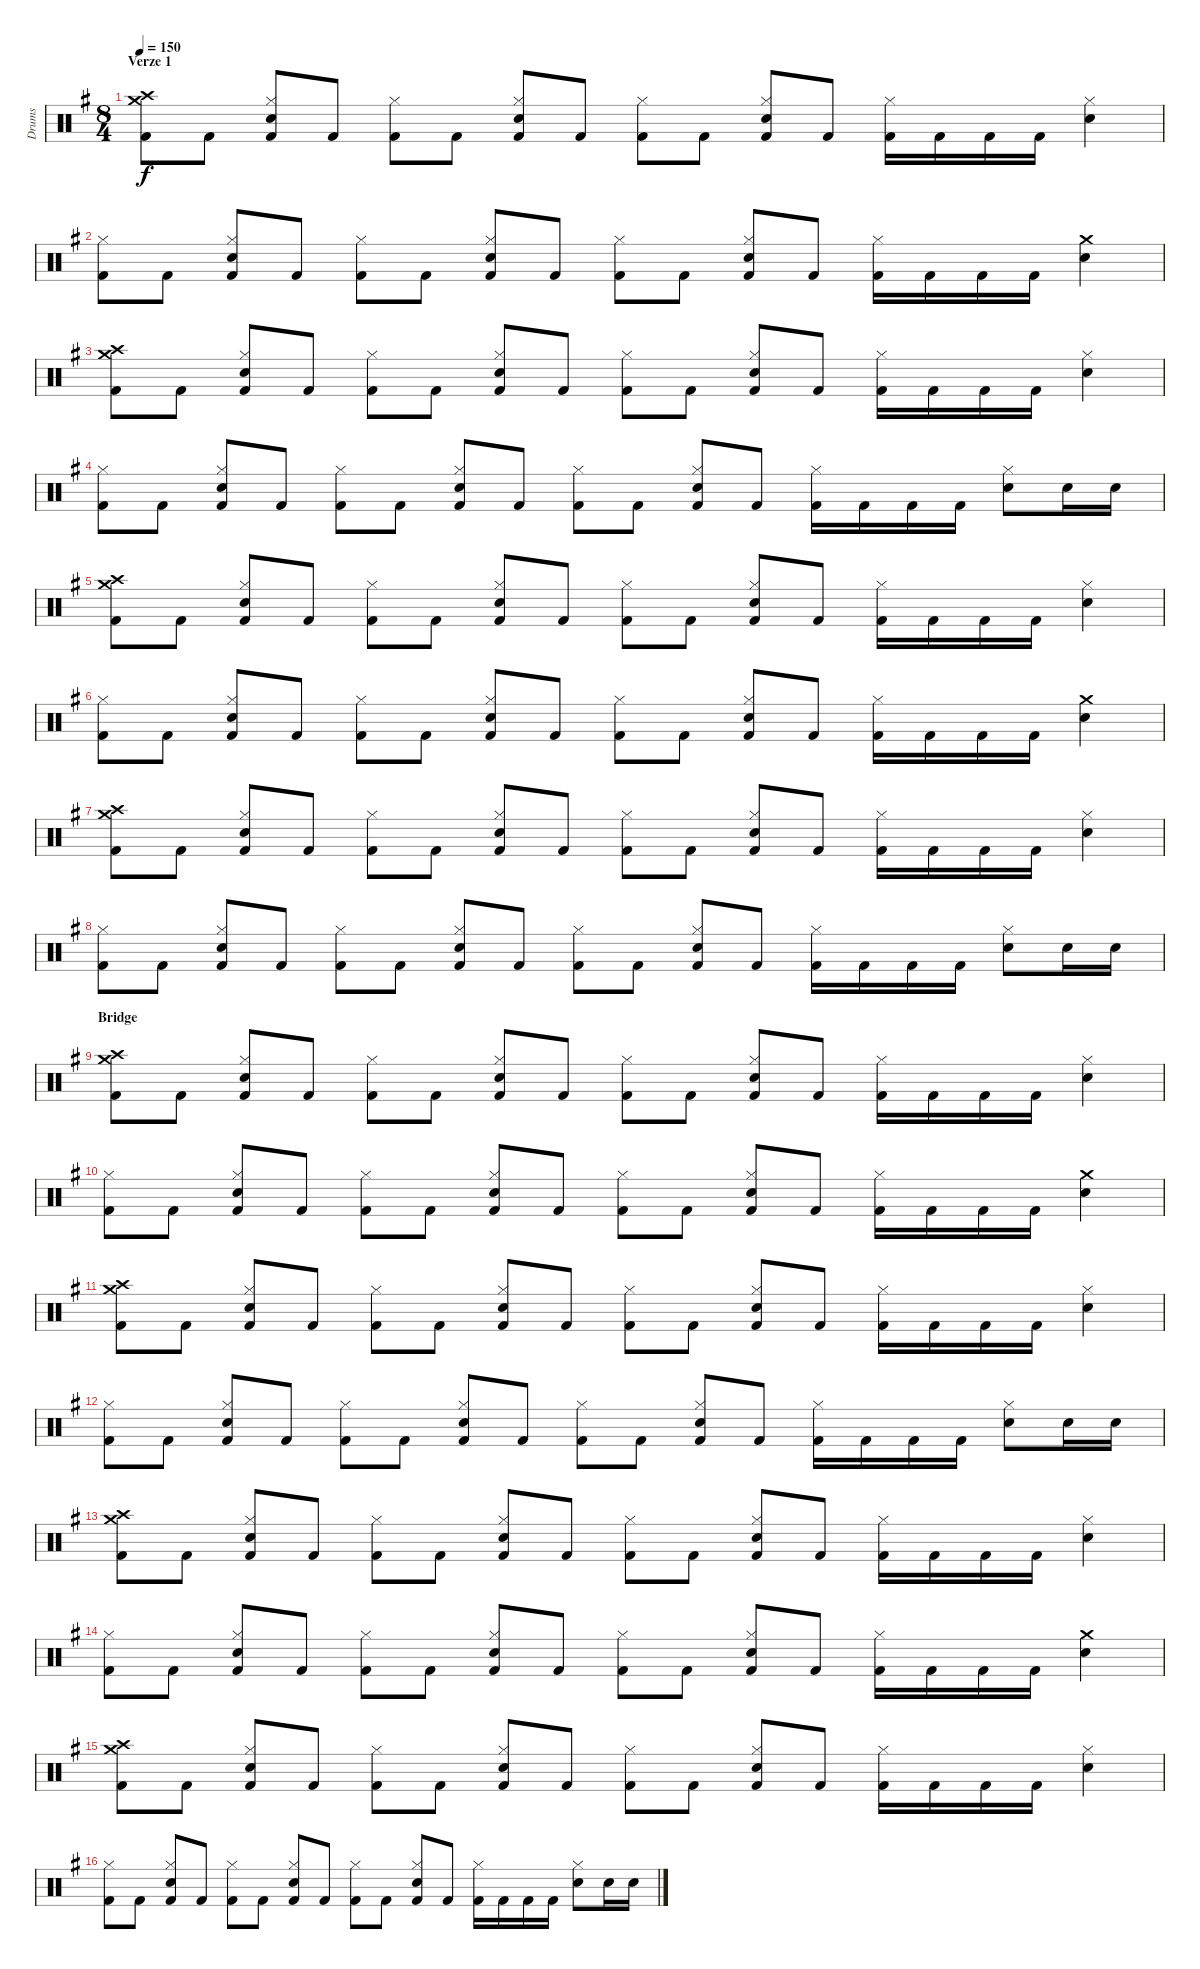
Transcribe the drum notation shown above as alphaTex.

\track ("Drums" "Drums") {instrument percussion}
\staff {score}
\articulation defaults
\ts (8 4)
\section ("" "Verze 1")
\tempo 150
\clef neutral
\ks g
("Crash medium (hit)" "Crash high (hit)" "Kick (hit) 2").8{dy f} "Kick (hit) 2".8 ("Hi-Hat (closed)" "Snare (hit) 2" "Kick (hit) 2").8 "Kick (hit) 2".8 ("Hi-Hat (closed)" "Kick (hit) 2").8 "Kick (hit) 2".8 ("Hi-Hat (closed)" "Snare (hit) 2" "Kick (hit) 2").8 "Kick (hit) 2".8 ("Hi-Hat (closed)" "Kick (hit) 2").8 "Kick (hit) 2".8 ("Hi-Hat (closed)" "Snare (hit) 2" "Kick (hit) 2").8 "Kick (hit) 2".8 ("Hi-Hat (closed)" "Kick (hit) 2").16 "Kick (hit) 2".16 "Kick (hit) 2".16 "Kick (hit) 2".16 ("Hi-Hat (closed)" "Snare (hit) 2").4 |
("Hi-Hat (closed)" "Kick (hit) 2").8 "Kick (hit) 2".8 ("Hi-Hat (closed)" "Snare (hit) 2" "Kick (hit) 2").8 "Kick (hit) 2".8 ("Hi-Hat (closed)" "Kick (hit) 2").8 "Kick (hit) 2".8 ("Hi-Hat (closed)" "Snare (hit) 2" "Kick (hit) 2").8 "Kick (hit) 2".8 ("Hi-Hat (closed)" "Kick (hit) 2").8 "Kick (hit) 2".8 ("Hi-Hat (closed)" "Snare (hit) 2" "Kick (hit) 2").8 "Kick (hit) 2".8 ("Hi-Hat (closed)" "Kick (hit) 2").16 "Kick (hit) 2".16 "Kick (hit) 2".16 "Kick (hit) 2".16 ("Crash medium (hit)" "Snare (hit) 2").4 |
("Crash medium (hit)" "Crash high (hit)" "Kick (hit) 2").8 "Kick (hit) 2".8 ("Hi-Hat (closed)" "Snare (hit) 2" "Kick (hit) 2").8 "Kick (hit) 2".8 ("Hi-Hat (closed)" "Kick (hit) 2").8 "Kick (hit) 2".8 ("Hi-Hat (closed)" "Snare (hit) 2" "Kick (hit) 2").8 "Kick (hit) 2".8 ("Hi-Hat (closed)" "Kick (hit) 2").8 "Kick (hit) 2".8 ("Hi-Hat (closed)" "Snare (hit) 2" "Kick (hit) 2").8 "Kick (hit) 2".8 ("Hi-Hat (closed)" "Kick (hit) 2").16 "Kick (hit) 2".16 "Kick (hit) 2".16 "Kick (hit) 2".16 ("Hi-Hat (closed)" "Snare (hit) 2").4 |
("Hi-Hat (closed)" "Kick (hit) 2").8 "Kick (hit) 2".8 ("Hi-Hat (closed)" "Snare (hit) 2" "Kick (hit) 2").8 "Kick (hit) 2".8 ("Hi-Hat (closed)" "Kick (hit) 2").8 "Kick (hit) 2".8 ("Hi-Hat (closed)" "Snare (hit) 2" "Kick (hit) 2").8 "Kick (hit) 2".8 ("Hi-Hat (closed)" "Kick (hit) 2").8 "Kick (hit) 2".8 ("Hi-Hat (closed)" "Snare (hit) 2" "Kick (hit) 2").8 "Kick (hit) 2".8 ("Hi-Hat (closed)" "Kick (hit) 2").16 "Kick (hit) 2".16 "Kick (hit) 2".16 "Kick (hit) 2".16 ("Hi-Hat (closed)" "Snare (hit) 2").8 "Snare (hit) 2".16 "Snare (hit) 2".16 |
("Crash medium (hit)" "Crash high (hit)" "Kick (hit) 2").8 "Kick (hit) 2".8 ("Hi-Hat (closed)" "Snare (hit) 2" "Kick (hit) 2").8 "Kick (hit) 2".8 ("Hi-Hat (closed)" "Kick (hit) 2").8 "Kick (hit) 2".8 ("Hi-Hat (closed)" "Snare (hit) 2" "Kick (hit) 2").8 "Kick (hit) 2".8 ("Hi-Hat (closed)" "Kick (hit) 2").8 "Kick (hit) 2".8 ("Hi-Hat (closed)" "Snare (hit) 2" "Kick (hit) 2").8 "Kick (hit) 2".8 ("Hi-Hat (closed)" "Kick (hit) 2").16 "Kick (hit) 2".16 "Kick (hit) 2".16 "Kick (hit) 2".16 ("Hi-Hat (closed)" "Snare (hit) 2").4 |
("Hi-Hat (closed)" "Kick (hit) 2").8 "Kick (hit) 2".8 ("Hi-Hat (closed)" "Snare (hit) 2" "Kick (hit) 2").8 "Kick (hit) 2".8 ("Hi-Hat (closed)" "Kick (hit) 2").8 "Kick (hit) 2".8 ("Hi-Hat (closed)" "Snare (hit) 2" "Kick (hit) 2").8 "Kick (hit) 2".8 ("Hi-Hat (closed)" "Kick (hit) 2").8 "Kick (hit) 2".8 ("Hi-Hat (closed)" "Snare (hit) 2" "Kick (hit) 2").8 "Kick (hit) 2".8 ("Hi-Hat (closed)" "Kick (hit) 2").16 "Kick (hit) 2".16 "Kick (hit) 2".16 "Kick (hit) 2".16 ("Crash medium (hit)" "Snare (hit) 2").4 |
("Crash medium (hit)" "Crash high (hit)" "Kick (hit) 2").8 "Kick (hit) 2".8 ("Hi-Hat (closed)" "Snare (hit) 2" "Kick (hit) 2").8 "Kick (hit) 2".8 ("Hi-Hat (closed)" "Kick (hit) 2").8 "Kick (hit) 2".8 ("Hi-Hat (closed)" "Snare (hit) 2" "Kick (hit) 2").8 "Kick (hit) 2".8 ("Hi-Hat (closed)" "Kick (hit) 2").8 "Kick (hit) 2".8 ("Hi-Hat (closed)" "Snare (hit) 2" "Kick (hit) 2").8 "Kick (hit) 2".8 ("Hi-Hat (closed)" "Kick (hit) 2").16 "Kick (hit) 2".16 "Kick (hit) 2".16 "Kick (hit) 2".16 ("Hi-Hat (closed)" "Snare (hit) 2").4 |
("Hi-Hat (closed)" "Kick (hit) 2").8 "Kick (hit) 2".8 ("Hi-Hat (closed)" "Snare (hit) 2" "Kick (hit) 2").8 "Kick (hit) 2".8 ("Hi-Hat (closed)" "Kick (hit) 2").8 "Kick (hit) 2".8 ("Hi-Hat (closed)" "Snare (hit) 2" "Kick (hit) 2").8 "Kick (hit) 2".8 ("Hi-Hat (closed)" "Kick (hit) 2").8 "Kick (hit) 2".8 ("Hi-Hat (closed)" "Snare (hit) 2" "Kick (hit) 2").8 "Kick (hit) 2".8 ("Hi-Hat (closed)" "Kick (hit) 2").16 "Kick (hit) 2".16 "Kick (hit) 2".16 "Kick (hit) 2".16 ("Hi-Hat (closed)" "Snare (hit) 2").8 "Snare (hit) 2".16 "Snare (hit) 2".16 |
\section ("" "Bridge")
("Crash medium (hit)" "Crash high (hit)" "Kick (hit) 2").8 "Kick (hit) 2".8 ("Hi-Hat (closed)" "Snare (hit) 2" "Kick (hit) 2").8 "Kick (hit) 2".8 ("Hi-Hat (closed)" "Kick (hit) 2").8 "Kick (hit) 2".8 ("Hi-Hat (closed)" "Snare (hit) 2" "Kick (hit) 2").8 "Kick (hit) 2".8 ("Hi-Hat (closed)" "Kick (hit) 2").8 "Kick (hit) 2".8 ("Hi-Hat (closed)" "Snare (hit) 2" "Kick (hit) 2").8 "Kick (hit) 2".8 ("Hi-Hat (closed)" "Kick (hit) 2").16 "Kick (hit) 2".16 "Kick (hit) 2".16 "Kick (hit) 2".16 ("Hi-Hat (closed)" "Snare (hit) 2").4 |
("Hi-Hat (closed)" "Kick (hit) 2").8 "Kick (hit) 2".8 ("Hi-Hat (closed)" "Snare (hit) 2" "Kick (hit) 2").8 "Kick (hit) 2".8 ("Hi-Hat (closed)" "Kick (hit) 2").8 "Kick (hit) 2".8 ("Hi-Hat (closed)" "Snare (hit) 2" "Kick (hit) 2").8 "Kick (hit) 2".8 ("Hi-Hat (closed)" "Kick (hit) 2").8 "Kick (hit) 2".8 ("Hi-Hat (closed)" "Snare (hit) 2" "Kick (hit) 2").8 "Kick (hit) 2".8 ("Hi-Hat (closed)" "Kick (hit) 2").16 "Kick (hit) 2".16 "Kick (hit) 2".16 "Kick (hit) 2".16 ("Crash medium (hit)" "Snare (hit) 2").4 |
("Crash medium (hit)" "Crash high (hit)" "Kick (hit) 2").8 "Kick (hit) 2".8 ("Hi-Hat (closed)" "Snare (hit) 2" "Kick (hit) 2").8 "Kick (hit) 2".8 ("Hi-Hat (closed)" "Kick (hit) 2").8 "Kick (hit) 2".8 ("Hi-Hat (closed)" "Snare (hit) 2" "Kick (hit) 2").8 "Kick (hit) 2".8 ("Hi-Hat (closed)" "Kick (hit) 2").8 "Kick (hit) 2".8 ("Hi-Hat (closed)" "Snare (hit) 2" "Kick (hit) 2").8 "Kick (hit) 2".8 ("Hi-Hat (closed)" "Kick (hit) 2").16 "Kick (hit) 2".16 "Kick (hit) 2".16 "Kick (hit) 2".16 ("Hi-Hat (closed)" "Snare (hit) 2").4 |
("Hi-Hat (closed)" "Kick (hit) 2").8 "Kick (hit) 2".8 ("Hi-Hat (closed)" "Snare (hit) 2" "Kick (hit) 2").8 "Kick (hit) 2".8 ("Hi-Hat (closed)" "Kick (hit) 2").8 "Kick (hit) 2".8 ("Hi-Hat (closed)" "Snare (hit) 2" "Kick (hit) 2").8 "Kick (hit) 2".8 ("Hi-Hat (closed)" "Kick (hit) 2").8 "Kick (hit) 2".8 ("Hi-Hat (closed)" "Snare (hit) 2" "Kick (hit) 2").8 "Kick (hit) 2".8 ("Hi-Hat (closed)" "Kick (hit) 2").16 "Kick (hit) 2".16 "Kick (hit) 2".16 "Kick (hit) 2".16 ("Hi-Hat (closed)" "Snare (hit) 2").8 "Snare (hit) 2".16 "Snare (hit) 2".16 |
("Crash medium (hit)" "Crash high (hit)" "Kick (hit) 2").8 "Kick (hit) 2".8 ("Hi-Hat (closed)" "Snare (hit) 2" "Kick (hit) 2").8 "Kick (hit) 2".8 ("Hi-Hat (closed)" "Kick (hit) 2").8 "Kick (hit) 2".8 ("Hi-Hat (closed)" "Snare (hit) 2" "Kick (hit) 2").8 "Kick (hit) 2".8 ("Hi-Hat (closed)" "Kick (hit) 2").8 "Kick (hit) 2".8 ("Hi-Hat (closed)" "Snare (hit) 2" "Kick (hit) 2").8 "Kick (hit) 2".8 ("Hi-Hat (closed)" "Kick (hit) 2").16 "Kick (hit) 2".16 "Kick (hit) 2".16 "Kick (hit) 2".16 ("Hi-Hat (closed)" "Snare (hit) 2").4 |
("Hi-Hat (closed)" "Kick (hit) 2").8 "Kick (hit) 2".8 ("Hi-Hat (closed)" "Snare (hit) 2" "Kick (hit) 2").8 "Kick (hit) 2".8 ("Hi-Hat (closed)" "Kick (hit) 2").8 "Kick (hit) 2".8 ("Hi-Hat (closed)" "Snare (hit) 2" "Kick (hit) 2").8 "Kick (hit) 2".8 ("Hi-Hat (closed)" "Kick (hit) 2").8 "Kick (hit) 2".8 ("Hi-Hat (closed)" "Snare (hit) 2" "Kick (hit) 2").8 "Kick (hit) 2".8 ("Hi-Hat (closed)" "Kick (hit) 2").16 "Kick (hit) 2".16 "Kick (hit) 2".16 "Kick (hit) 2".16 ("Crash medium (hit)" "Snare (hit) 2").4 |
("Crash medium (hit)" "Crash high (hit)" "Kick (hit) 2").8 "Kick (hit) 2".8 ("Hi-Hat (closed)" "Snare (hit) 2" "Kick (hit) 2").8 "Kick (hit) 2".8 ("Hi-Hat (closed)" "Kick (hit) 2").8 "Kick (hit) 2".8 ("Hi-Hat (closed)" "Snare (hit) 2" "Kick (hit) 2").8 "Kick (hit) 2".8 ("Hi-Hat (closed)" "Kick (hit) 2").8 "Kick (hit) 2".8 ("Hi-Hat (closed)" "Snare (hit) 2" "Kick (hit) 2").8 "Kick (hit) 2".8 ("Hi-Hat (closed)" "Kick (hit) 2").16 "Kick (hit) 2".16 "Kick (hit) 2".16 "Kick (hit) 2".16 ("Hi-Hat (closed)" "Snare (hit) 2").4 |
("Hi-Hat (closed)" "Kick (hit) 2").8 "Kick (hit) 2".8 ("Hi-Hat (closed)" "Snare (hit) 2" "Kick (hit) 2").8 "Kick (hit) 2".8 ("Hi-Hat (closed)" "Kick (hit) 2").8 "Kick (hit) 2".8 ("Hi-Hat (closed)" "Snare (hit) 2" "Kick (hit) 2").8 "Kick (hit) 2".8 ("Hi-Hat (closed)" "Kick (hit) 2").8 "Kick (hit) 2".8 ("Hi-Hat (closed)" "Snare (hit) 2" "Kick (hit) 2").8 "Kick (hit) 2".8 ("Hi-Hat (closed)" "Kick (hit) 2").16 "Kick (hit) 2".16 "Kick (hit) 2".16 "Kick (hit) 2".16 ("Hi-Hat (closed)" "Snare (hit) 2").8 "Snare (hit) 2".16 "Snare (hit) 2".16
